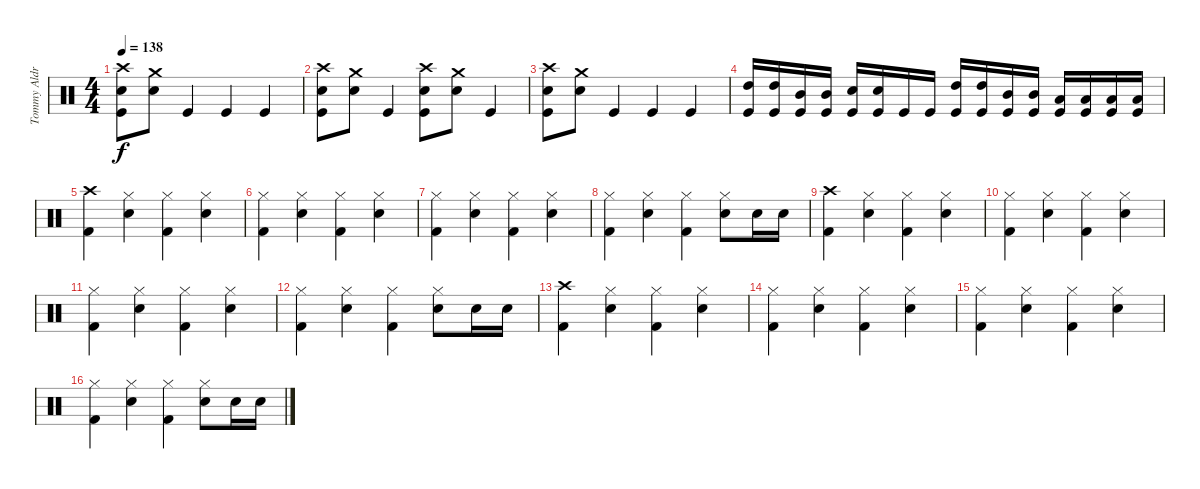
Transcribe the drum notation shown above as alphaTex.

\track ("Tommy Aldridge" "Tommy Aldr") {instrument percussion}
\staff {score}
\articulation defaults
\ts (4 4)
\tempo 138
\clef neutral
\ks c
("Crash high (hit)" "Snare (hit) 2" "Kick (hit)").8{dy f} ("Crash medium (hit)" "Snare (hit) 2").8 "Kick (hit)".4 "Kick (hit)".4 "Kick (hit)".4 |
("Crash high (hit)" "Snare (hit) 2" "Kick (hit)").8 ("Crash medium (hit)" "Snare (hit) 2").8 "Kick (hit)".4 ("Crash high (hit)" "Snare (hit) 2" "Kick (hit)").8 ("Crash medium (hit)" "Snare (hit) 2").8 "Kick (hit)".4 |
("Crash high (hit)" "Snare (hit) 2" "Kick (hit)").8 ("Crash medium (hit)" "Snare (hit) 2").8 "Kick (hit)".4 "Kick (hit)".4 "Kick (hit)".4 |
("High Tom (hit)" "Kick (hit)").16 ("High Tom (hit)" "Kick (hit)").16 ("Mid Tom (hit)" "Kick (hit)").16 ("Mid Tom (hit)" "Kick (hit)").16 ("Snare (hit) 2" "Kick (hit)").16 ("Snare (hit) 2" "Kick (hit)").16 "Kick (hit)".16 "Kick (hit)".16 ("High Tom (hit)" "Kick (hit)").16 ("High Tom (hit)" "Kick (hit)").16 ("Mid Tom (hit)" "Kick (hit)").16 ("Mid Tom (hit)" "Kick (hit)").16 ("Low Tom (hit)" "Kick (hit)").16 ("Low Tom (hit)" "Kick (hit)").16 ("Low Floor Tom (hit)" "Kick (hit)").16 ("Low Floor Tom (hit)" "Kick (hit)").16 |
("Crash high (hit)" "Kick (hit) 2").4 ("Snare (hit) 2" "Hi-Hat (closed)").4 ("Hi-Hat (closed)" "Kick (hit) 2").4 ("Snare (hit) 2" "Hi-Hat (closed)").4 |
("Hi-Hat (closed)" "Kick (hit) 2").4 ("Snare (hit) 2" "Hi-Hat (closed)").4 ("Hi-Hat (closed)" "Kick (hit) 2").4 ("Snare (hit) 2" "Hi-Hat (closed)").4 |
("Hi-Hat (closed)" "Kick (hit) 2").4 ("Snare (hit) 2" "Hi-Hat (closed)").4 ("Hi-Hat (closed)" "Kick (hit) 2").4 ("Snare (hit) 2" "Hi-Hat (closed)").4 |
("Hi-Hat (closed)" "Kick (hit) 2").4 ("Snare (hit) 2" "Hi-Hat (closed)").4 ("Hi-Hat (closed)" "Kick (hit) 2").4 ("Snare (hit) 2" "Hi-Hat (closed)").8 "Snare (hit) 2".16 "Snare (hit) 2".16 |
("Crash high (hit)" "Kick (hit) 2").4 ("Snare (hit) 2" "Hi-Hat (closed)").4 ("Hi-Hat (closed)" "Kick (hit) 2").4 ("Snare (hit) 2" "Hi-Hat (closed)").4 |
("Hi-Hat (closed)" "Kick (hit) 2").4 ("Snare (hit) 2" "Hi-Hat (closed)").4 ("Hi-Hat (closed)" "Kick (hit) 2").4 ("Snare (hit) 2" "Hi-Hat (closed)").4 |
("Hi-Hat (closed)" "Kick (hit) 2").4 ("Snare (hit) 2" "Hi-Hat (closed)").4 ("Hi-Hat (closed)" "Kick (hit) 2").4 ("Snare (hit) 2" "Hi-Hat (closed)").4 |
("Hi-Hat (closed)" "Kick (hit) 2").4 ("Snare (hit) 2" "Hi-Hat (closed)").4 ("Hi-Hat (closed)" "Kick (hit) 2").4 ("Snare (hit) 2" "Hi-Hat (closed)").8 "Snare (hit) 2".16 "Snare (hit) 2".16 |
("Crash high (hit)" "Kick (hit) 2").4 ("Snare (hit) 2" "Hi-Hat (closed)").4 ("Hi-Hat (closed)" "Kick (hit) 2").4 ("Snare (hit) 2" "Hi-Hat (closed)").4 |
("Hi-Hat (closed)" "Kick (hit) 2").4 ("Snare (hit) 2" "Hi-Hat (closed)").4 ("Hi-Hat (closed)" "Kick (hit) 2").4 ("Snare (hit) 2" "Hi-Hat (closed)").4 |
("Hi-Hat (closed)" "Kick (hit) 2").4 ("Snare (hit) 2" "Hi-Hat (closed)").4 ("Hi-Hat (closed)" "Kick (hit) 2").4 ("Snare (hit) 2" "Hi-Hat (closed)").4 |
("Hi-Hat (closed)" "Kick (hit) 2").4 ("Snare (hit) 2" "Hi-Hat (closed)").4 ("Hi-Hat (closed)" "Kick (hit) 2").4 ("Snare (hit) 2" "Hi-Hat (closed)").8 "Snare (hit) 2".16 "Snare (hit) 2".16
